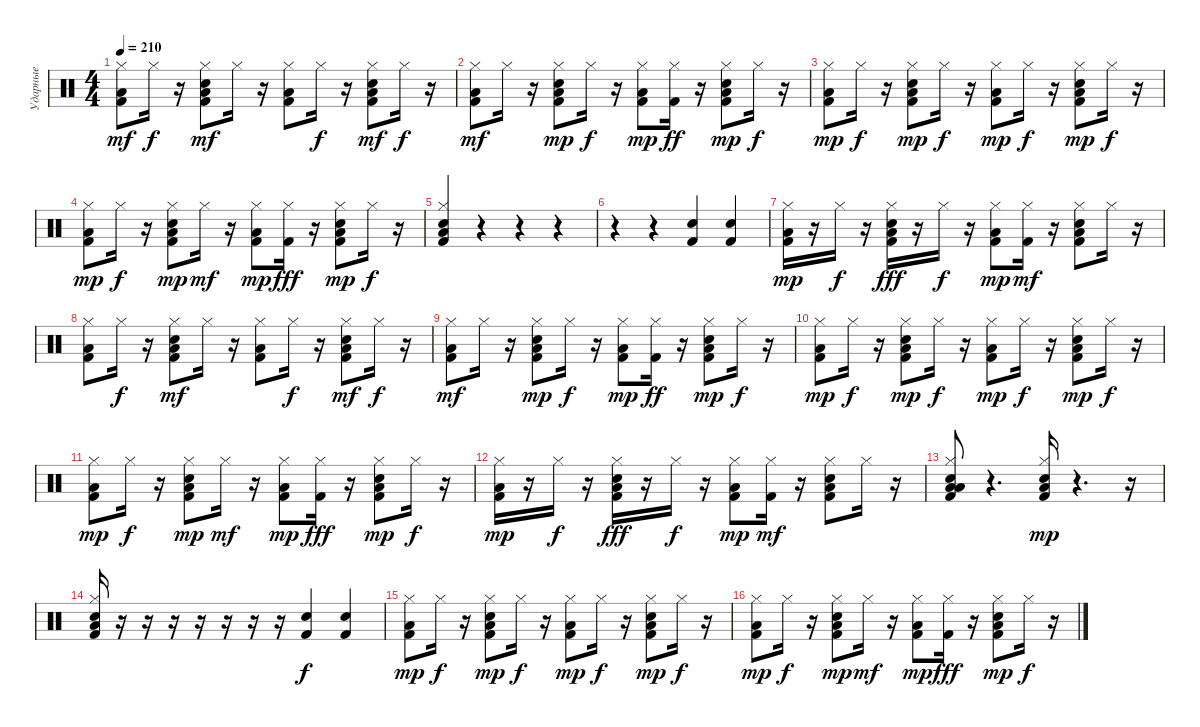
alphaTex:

\track ("Ударные" "Ударные") {instrument percussion}
\staff {score}
\articulation defaults
\ts (4 4)
\tempo 210
\clef neutral
\ks c
("Kick (hit) 2" "Hi-Hat (closed)" "Low Floor Tom (hit)").8{dy mf} "Hi-Hat (closed)".16{dy f} r.16 ("Kick (hit) 2" "Snare (hit) 2" "Hi-Hat (closed)" "Low Floor Tom (hit)").8{dy mf} "Hi-Hat (closed)".16 r.16 ("Kick (hit) 2" "Hi-Hat (closed)" "Low Floor Tom (hit)").8 "Hi-Hat (closed)".16{dy f} r.16 ("Kick (hit) 2" "Snare (hit) 2" "Hi-Hat (closed)" "Low Floor Tom (hit)").8{dy mf} "Hi-Hat (closed)".16{dy f} r.16 |
("Kick (hit) 2" "Hi-Hat (closed)" "Low Floor Tom (hit)").8{dy mf} "Hi-Hat (closed)".16 r.16 ("Kick (hit) 2" "Snare (hit) 2" "Hi-Hat (closed)" "Low Floor Tom (hit)").8{dy mp} "Hi-Hat (closed)".16{dy f} r.16 ("Kick (hit) 2" "Hi-Hat (closed)" "Low Floor Tom (hit)").8{dy mp} ("Kick (hit) 2" "Hi-Hat (closed)").16{dy ff} r.16 ("Kick (hit) 2" "Snare (hit) 2" "Hi-Hat (closed)" "Low Floor Tom (hit)").8{dy mp} "Hi-Hat (closed)".16{dy f} r.16 |
("Kick (hit) 2" "Hi-Hat (closed)" "Low Floor Tom (hit)").8{dy mp} "Hi-Hat (closed)".16{dy f} r.16 ("Kick (hit) 2" "Snare (hit) 2" "Hi-Hat (closed)" "Low Floor Tom (hit)").8{dy mp} "Hi-Hat (closed)".16{dy f} r.16 ("Kick (hit) 2" "Hi-Hat (closed)" "Low Floor Tom (hit)").8{dy mp} "Hi-Hat (closed)".16{dy f} r.16 ("Kick (hit) 2" "Snare (hit) 2" "Hi-Hat (closed)" "Low Floor Tom (hit)").8{dy mp} "Hi-Hat (closed)".16{dy f} r.16 |
("Kick (hit) 2" "Hi-Hat (closed)" "Low Floor Tom (hit)").8{dy mp} "Hi-Hat (closed)".16{dy f} r.16 ("Kick (hit) 2" "Snare (hit) 2" "Hi-Hat (closed)" "Low Floor Tom (hit)").8{dy mp} "Hi-Hat (closed)".16{dy mf} r.16 ("Kick (hit) 2" "Hi-Hat (closed)" "Low Floor Tom (hit)").8{dy mp} ("Kick (hit) 2" "Hi-Hat (closed)").16{dy fff} r.16 ("Kick (hit) 2" "Snare (hit) 2" "Hi-Hat (closed)" "Low Floor Tom (hit)").8{dy mp} "Hi-Hat (closed)".16{dy f} r.16 |
("Kick (hit) 2" "Snare (hit) 2" "Hi-Hat (closed)" "Low Floor Tom (hit)").4 r.4 r.4 r.4 |
r.4 r.4 ("Kick (hit) 2" "Snare (hit) 2").4 ("Kick (hit) 2" "Snare (hit) 2").4 |
("Kick (hit) 2" "Hi-Hat (closed)" "Low Floor Tom (hit)").16{dy mp} r.16 "Hi-Hat (closed)".16{dy f} r.16 ("Kick (hit) 2" "Snare (hit) 2" "Hi-Hat (closed)" "Low Floor Tom (hit)").16{dy fff} r.16 "Hi-Hat (closed)".16{dy f} r.16 ("Kick (hit) 2" "Hi-Hat (closed)" "Low Floor Tom (hit)").8{dy mp} ("Kick (hit) 2" "Hi-Hat (closed)").16{dy mf} r.16 ("Kick (hit) 2" "Snare (hit) 2" "Hi-Hat (closed)" "Low Floor Tom (hit)").8 "Hi-Hat (closed)".16 r.16 |
("Kick (hit) 2" "Hi-Hat (closed)" "Low Floor Tom (hit)").8 "Hi-Hat (closed)".16{dy f} r.16 ("Kick (hit) 2" "Snare (hit) 2" "Hi-Hat (closed)" "Low Floor Tom (hit)").8{dy mf} "Hi-Hat (closed)".16 r.16 ("Kick (hit) 2" "Hi-Hat (closed)" "Low Floor Tom (hit)").8 "Hi-Hat (closed)".16{dy f} r.16 ("Kick (hit) 2" "Snare (hit) 2" "Hi-Hat (closed)" "Low Floor Tom (hit)").8{dy mf} "Hi-Hat (closed)".16{dy f} r.16 |
("Kick (hit) 2" "Hi-Hat (closed)" "Low Floor Tom (hit)").8{dy mf} "Hi-Hat (closed)".16 r.16 ("Kick (hit) 2" "Snare (hit) 2" "Hi-Hat (closed)" "Low Floor Tom (hit)").8{dy mp} "Hi-Hat (closed)".16{dy f} r.16 ("Kick (hit) 2" "Hi-Hat (closed)" "Low Floor Tom (hit)").8{dy mp} ("Kick (hit) 2" "Hi-Hat (closed)").16{dy ff} r.16 ("Kick (hit) 2" "Snare (hit) 2" "Hi-Hat (closed)" "Low Floor Tom (hit)").8{dy mp} "Hi-Hat (closed)".16{dy f} r.16 |
("Kick (hit) 2" "Hi-Hat (closed)" "Low Floor Tom (hit)").8{dy mp} "Hi-Hat (closed)".16{dy f} r.16 ("Kick (hit) 2" "Snare (hit) 2" "Hi-Hat (closed)" "Low Floor Tom (hit)").8{dy mp} "Hi-Hat (closed)".16{dy f} r.16 ("Kick (hit) 2" "Hi-Hat (closed)" "Low Floor Tom (hit)").8{dy mp} "Hi-Hat (closed)".16{dy f} r.16 ("Kick (hit) 2" "Snare (hit) 2" "Hi-Hat (closed)" "Low Floor Tom (hit)").8{dy mp} "Hi-Hat (closed)".16{dy f} r.16 |
("Kick (hit) 2" "Hi-Hat (closed)" "Low Floor Tom (hit)").8{dy mp} "Hi-Hat (closed)".16{dy f} r.16 ("Kick (hit) 2" "Snare (hit) 2" "Hi-Hat (closed)" "Low Floor Tom (hit)").8{dy mp} "Hi-Hat (closed)".16{dy mf} r.16 ("Kick (hit) 2" "Hi-Hat (closed)" "Low Floor Tom (hit)").8{dy mp} ("Kick (hit) 2" "Hi-Hat (closed)").16{dy fff} r.16 ("Kick (hit) 2" "Snare (hit) 2" "Hi-Hat (closed)" "Low Floor Tom (hit)").8{dy mp} "Hi-Hat (closed)".16{dy f} r.16 |
("Kick (hit) 2" "Hi-Hat (closed)" "Low Floor Tom (hit)").16{dy mp} r.16 "Hi-Hat (closed)".16{dy f} r.16 ("Kick (hit) 2" "Snare (hit) 2" "Hi-Hat (closed)" "Low Floor Tom (hit)").16{dy fff} r.16 "Hi-Hat (closed)".16{dy f} r.16 ("Kick (hit) 2" "Hi-Hat (closed)" "Low Floor Tom (hit)").8{dy mp} ("Kick (hit) 2" "Hi-Hat (closed)").16{dy mf} r.16 ("Kick (hit) 2" "Snare (hit) 2" "Hi-Hat (closed)" "Low Floor Tom (hit)").8 "Hi-Hat (closed)".16 r.16 |
("Kick (hit) 2" "Snare (hit) 2" "Hi-Hat (closed)" "Low Floor Tom (hit)" "Low Tom (hit)").8 r.4{d} ("Kick (hit) 2" "Snare (hit) 2" "Hi-Hat (closed)" "Low Floor Tom (hit)").16{dy mp} r.4{d} r.16 |
("Kick (hit) 2" "Snare (hit) 2" "Hi-Hat (closed)" "Low Floor Tom (hit)").16 r.16 r.16 r.16 r.16 r.16 r.16 r.16 ("Snare (hit) 2" "Kick (hit) 2").4{dy f} ("Snare (hit) 2" "Kick (hit) 2").4 |
("Kick (hit) 2" "Hi-Hat (closed)" "Low Floor Tom (hit)").8{dy mp} "Hi-Hat (closed)".16{dy f} r.16 ("Kick (hit) 2" "Snare (hit) 2" "Hi-Hat (closed)" "Low Floor Tom (hit)").8{dy mp} "Hi-Hat (closed)".16{dy f} r.16 ("Kick (hit) 2" "Hi-Hat (closed)" "Low Floor Tom (hit)").8{dy mp} "Hi-Hat (closed)".16{dy f} r.16 ("Kick (hit) 2" "Snare (hit) 2" "Hi-Hat (closed)" "Low Floor Tom (hit)").8{dy mp} "Hi-Hat (closed)".16{dy f} r.16 |
("Kick (hit) 2" "Hi-Hat (closed)" "Low Floor Tom (hit)").8{dy mp} "Hi-Hat (closed)".16{dy f} r.16 ("Kick (hit) 2" "Snare (hit) 2" "Hi-Hat (closed)" "Low Floor Tom (hit)").8{dy mp} "Hi-Hat (closed)".16{dy mf} r.16 ("Kick (hit) 2" "Hi-Hat (closed)" "Low Floor Tom (hit)").8{dy mp} ("Kick (hit) 2" "Hi-Hat (closed)").16{dy fff} r.16 ("Kick (hit) 2" "Snare (hit) 2" "Hi-Hat (closed)" "Low Floor Tom (hit)").8{dy mp} "Hi-Hat (closed)".16{dy f} r.16
